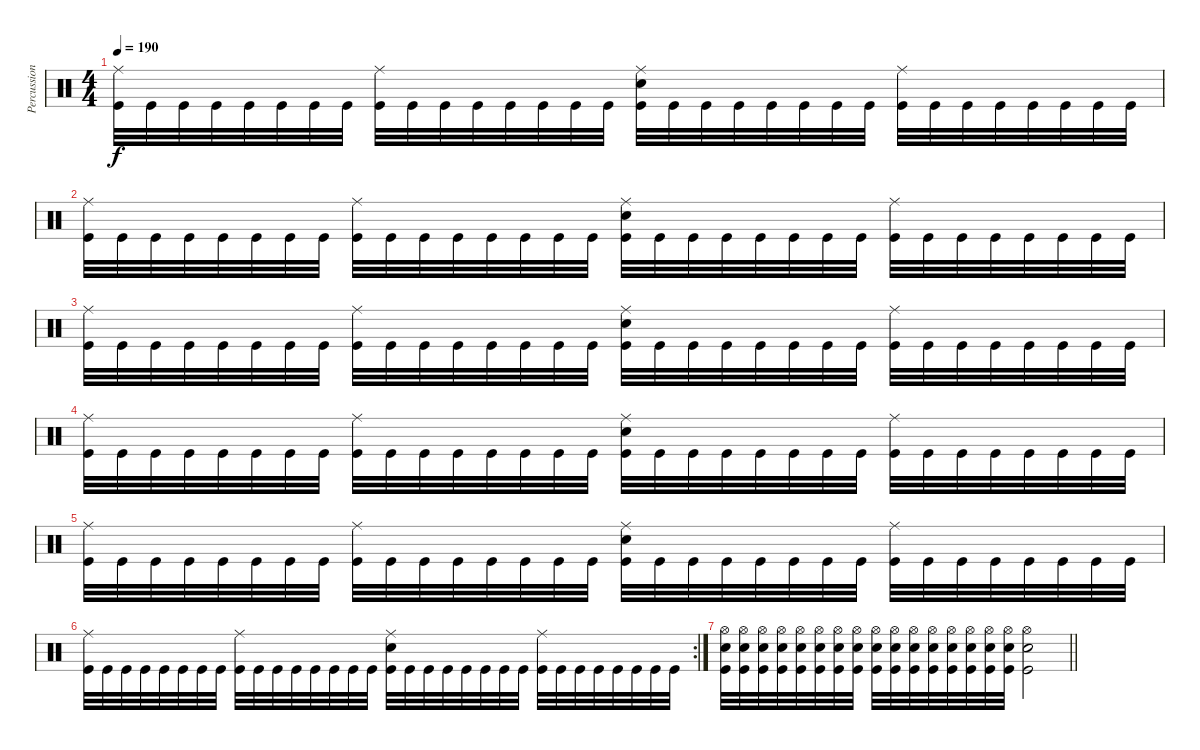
\track ("Percussion" "Percussion") {instrument percussion}
\staff {score}
\articulation defaults
\ts (4 4)
\tempo 190
\clef neutral
\ks c
("Ride (middle)" "Kick (hit)").32{dy f} "Kick (hit)".32 "Kick (hit)".32 "Kick (hit)".32 "Kick (hit)".32 "Kick (hit)".32 "Kick (hit)".32 "Kick (hit)".32 ("Ride (middle)" "Kick (hit)").32 "Kick (hit)".32 "Kick (hit)".32 "Kick (hit)".32 "Kick (hit)".32 "Kick (hit)".32 "Kick (hit)".32 "Kick (hit)".32 ("Ride (middle)" "Snare (hit) 2" "Kick (hit)").32 "Kick (hit)".32 "Kick (hit)".32 "Kick (hit)".32 "Kick (hit)".32 "Kick (hit)".32 "Kick (hit)".32 "Kick (hit)".32 ("Ride (middle)" "Kick (hit)").32 "Kick (hit)".32 "Kick (hit)".32 "Kick (hit)".32 "Kick (hit)".32 "Kick (hit)".32 "Kick (hit)".32 "Kick (hit)".32 |
("Ride (middle)" "Kick (hit)").32 "Kick (hit)".32 "Kick (hit)".32 "Kick (hit)".32 "Kick (hit)".32 "Kick (hit)".32 "Kick (hit)".32 "Kick (hit)".32 ("Ride (middle)" "Kick (hit)").32 "Kick (hit)".32 "Kick (hit)".32 "Kick (hit)".32 "Kick (hit)".32 "Kick (hit)".32 "Kick (hit)".32 "Kick (hit)".32 ("Ride (middle)" "Snare (hit) 2" "Kick (hit)").32 "Kick (hit)".32 "Kick (hit)".32 "Kick (hit)".32 "Kick (hit)".32 "Kick (hit)".32 "Kick (hit)".32 "Kick (hit)".32 ("Ride (middle)" "Kick (hit)").32 "Kick (hit)".32 "Kick (hit)".32 "Kick (hit)".32 "Kick (hit)".32 "Kick (hit)".32 "Kick (hit)".32 "Kick (hit)".32 |
("Ride (middle)" "Kick (hit)").32 "Kick (hit)".32 "Kick (hit)".32 "Kick (hit)".32 "Kick (hit)".32 "Kick (hit)".32 "Kick (hit)".32 "Kick (hit)".32 ("Ride (middle)" "Kick (hit)").32 "Kick (hit)".32 "Kick (hit)".32 "Kick (hit)".32 "Kick (hit)".32 "Kick (hit)".32 "Kick (hit)".32 "Kick (hit)".32 ("Ride (middle)" "Snare (hit) 2" "Kick (hit)").32 "Kick (hit)".32 "Kick (hit)".32 "Kick (hit)".32 "Kick (hit)".32 "Kick (hit)".32 "Kick (hit)".32 "Kick (hit)".32 ("Ride (middle)" "Kick (hit)").32 "Kick (hit)".32 "Kick (hit)".32 "Kick (hit)".32 "Kick (hit)".32 "Kick (hit)".32 "Kick (hit)".32 "Kick (hit)".32 |
("Ride (middle)" "Kick (hit)").32 "Kick (hit)".32 "Kick (hit)".32 "Kick (hit)".32 "Kick (hit)".32 "Kick (hit)".32 "Kick (hit)".32 "Kick (hit)".32 ("Ride (middle)" "Kick (hit)").32 "Kick (hit)".32 "Kick (hit)".32 "Kick (hit)".32 "Kick (hit)".32 "Kick (hit)".32 "Kick (hit)".32 "Kick (hit)".32 ("Ride (middle)" "Snare (hit) 2" "Kick (hit)").32 "Kick (hit)".32 "Kick (hit)".32 "Kick (hit)".32 "Kick (hit)".32 "Kick (hit)".32 "Kick (hit)".32 "Kick (hit)".32 ("Ride (middle)" "Kick (hit)").32 "Kick (hit)".32 "Kick (hit)".32 "Kick (hit)".32 "Kick (hit)".32 "Kick (hit)".32 "Kick (hit)".32 "Kick (hit)".32 |
("Ride (middle)" "Kick (hit)").32 "Kick (hit)".32 "Kick (hit)".32 "Kick (hit)".32 "Kick (hit)".32 "Kick (hit)".32 "Kick (hit)".32 "Kick (hit)".32 ("Ride (middle)" "Kick (hit)").32 "Kick (hit)".32 "Kick (hit)".32 "Kick (hit)".32 "Kick (hit)".32 "Kick (hit)".32 "Kick (hit)".32 "Kick (hit)".32 ("Ride (middle)" "Snare (hit) 2" "Kick (hit)").32 "Kick (hit)".32 "Kick (hit)".32 "Kick (hit)".32 "Kick (hit)".32 "Kick (hit)".32 "Kick (hit)".32 "Kick (hit)".32 ("Ride (middle)" "Kick (hit)").32 "Kick (hit)".32 "Kick (hit)".32 "Kick (hit)".32 "Kick (hit)".32 "Kick (hit)".32 "Kick (hit)".32 "Kick (hit)".32 |
\rc 2
("Ride (middle)" "Kick (hit)").32 "Kick (hit)".32 "Kick (hit)".32 "Kick (hit)".32 "Kick (hit)".32 "Kick (hit)".32 "Kick (hit)".32 "Kick (hit)".32 ("Ride (middle)" "Kick (hit)").32 "Kick (hit)".32 "Kick (hit)".32 "Kick (hit)".32 "Kick (hit)".32 "Kick (hit)".32 "Kick (hit)".32 "Kick (hit)".32 ("Ride (middle)" "Snare (hit) 2" "Kick (hit)").32 "Kick (hit)".32 "Kick (hit)".32 "Kick (hit)".32 "Kick (hit)".32 "Kick (hit)".32 "Kick (hit)".32 "Kick (hit)".32 ("Ride (middle)" "Kick (hit)").32 "Kick (hit)".32 "Kick (hit)".32 "Kick (hit)".32 "Kick (hit)".32 "Kick (hit)".32 "Kick (hit)".32 "Kick (hit)".32 |
\barLineRight lightlight
("Hi-Hat (open)" "Snare (hit) 2" "Kick (hit)").32 ("Hi-Hat (open)" "Snare (hit) 2" "Kick (hit)").32 ("Hi-Hat (open)" "Snare (hit) 2" "Kick (hit)").32 ("Hi-Hat (open)" "Snare (hit) 2" "Kick (hit)").32 ("Hi-Hat (open)" "Snare (hit) 2" "Kick (hit)").32 ("Hi-Hat (open)" "Snare (hit) 2" "Kick (hit)").32 ("Hi-Hat (open)" "Snare (hit) 2" "Kick (hit)").32 ("Hi-Hat (open)" "Snare (hit) 2" "Kick (hit)").32 ("Hi-Hat (open)" "Snare (hit) 2" "Kick (hit)").32 ("Hi-Hat (open)" "Snare (hit) 2" "Kick (hit)").32 ("Hi-Hat (open)" "Snare (hit) 2" "Kick (hit)").32 ("Hi-Hat (open)" "Snare (hit) 2" "Kick (hit)").32 ("Hi-Hat (open)" "Snare (hit) 2" "Kick (hit)").32 ("Hi-Hat (open)" "Snare (hit) 2" "Kick (hit)").32 ("Hi-Hat (open)" "Snare (hit) 2" "Kick (hit)").32 ("Hi-Hat (open)" "Snare (hit) 2" "Kick (hit)").32 ("Hi-Hat (open)" "Snare (hit) 2" "Kick (hit)").2
